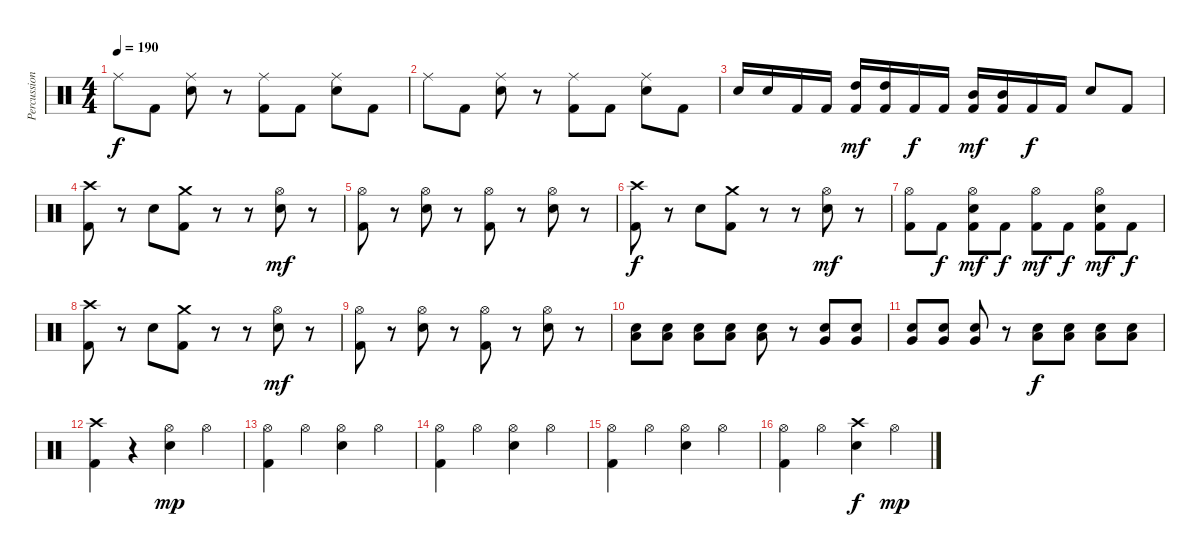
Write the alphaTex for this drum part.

\track ("Percussion" "Percussion") {instrument percussion}
\staff {score}
\articulation defaults
\ts (4 4)
\tempo 190
\clef neutral
\ks c "Ride (middle)".8{dy f} "Kick (hit) 2".8
("Ride (middle)" "Snare (hit) 2").8 r.8 ("Ride (middle)" "Kick (hit) 2").8 "Kick (hit) 2".8 ("Ride (middle)" "Snare (hit) 2").8 "Kick (hit) 2".8 |
"Ride (middle)".8 "Kick (hit) 2".8 ("Ride (middle)" "Snare (hit) 2").8 r.8 ("Ride (middle)" "Kick (hit) 2").8 "Kick (hit) 2".8 ("Ride (middle)" "Snare (hit) 2").8 "Kick (hit) 2".8 |
"Snare (hit) 2".16 "Snare (hit) 2".16 "Kick (hit) 2".16 "Kick (hit) 2".16 ("High Tom (hit)" "Kick (hit) 2").16{dy mf} ("High Tom (hit)" "Kick (hit) 2").16 "Kick (hit) 2".16{dy f} "Kick (hit) 2".16 ("Mid Tom (hit)" "Kick (hit) 2").16{dy mf} ("Mid Tom (hit)" "Kick (hit) 2").16 "Kick (hit) 2".16{dy f} "Kick (hit) 2".16 "Snare (hit) 2".8 "Kick (hit) 2".8 |
("Crash high (hit)" "Kick (hit) 2").8 r.8 "Snare (hit) 2".8 ("Crash medium (hit)" "Kick (hit) 2").8 r.8 r.8 ("Hi-Hat (open)" "Snare (hit) 2").8{dy mf} r.8 |
("Hi-Hat (open)" "Kick (hit) 2").8 r.8 ("Hi-Hat (open)" "Snare (hit) 2").8 r.8 ("Hi-Hat (open)" "Kick (hit) 2").8 r.8 ("Hi-Hat (open)" "Snare (hit) 2").8 r.8 |
("Crash high (hit)" "Kick (hit) 2").8{dy f} r.8 "Snare (hit) 2".8 ("Crash medium (hit)" "Kick (hit) 2").8 r.8 r.8 ("Hi-Hat (open)" "Snare (hit) 2").8{dy mf} r.8 |
("Hi-Hat (open)" "Kick (hit) 2").8 "Kick (hit) 2".8{dy f} ("Hi-Hat (open)" "Snare (hit) 2" "Kick (hit) 2").8{dy mf} "Kick (hit) 2".8{dy f} ("Hi-Hat (open)" "Kick (hit) 2").8{dy mf} "Kick (hit) 2".8{dy f} ("Hi-Hat (open)" "Snare (hit) 2" "Kick (hit) 2").8{dy mf} "Kick (hit) 2".8{dy f} |
("Crash high (hit)" "Kick (hit) 2").8 r.8 "Snare (hit) 2".8 ("Crash medium (hit)" "Kick (hit) 2").8 r.8 r.8 ("Hi-Hat (open)" "Snare (hit) 2").8{dy mf} r.8 |
("Hi-Hat (open)" "Kick (hit) 2").8 r.8 ("Hi-Hat (open)" "Snare (hit) 2").8 r.8 ("Hi-Hat (open)" "Kick (hit) 2").8 r.8 ("Hi-Hat (open)" "Snare (hit) 2").8 r.8 |
("Snare (hit) 2" "Low Tom (hit)").8 ("Snare (hit) 2" "Low Tom (hit)").8 ("Snare (hit) 2" "Low Tom (hit)").8 ("Snare (hit) 2" "Low Tom (hit)").8 ("Snare (hit) 2" "Low Tom (hit)").8 r.8 ("Snare (hit) 2" "Very Low Tom (hit)").8 ("Snare (hit) 2" "Very Low Tom (hit)").8 |
("Snare (hit) 2" "Very Low Tom (hit)").8 ("Snare (hit) 2" "Very Low Tom (hit)").8 ("Snare (hit) 2" "Very Low Tom (hit)").8 r.8 ("Snare (hit) 2" "Low Tom (hit)").8{dy f} ("Snare (hit) 2" "Low Tom (hit)").8 ("Snare (hit) 2" "Low Tom (hit)").8 ("Snare (hit) 2" "Low Tom (hit)").8 |
("Crash high (hit)" "Kick (hit) 2").4 r.4 ("Hi-Hat (open)" "Snare (hit) 2").4{dy mp} "Hi-Hat (open)".4 |
("Hi-Hat (open)" "Kick (hit) 2").4 "Hi-Hat (open)".4 ("Hi-Hat (open)" "Snare (hit) 2").4 "Hi-Hat (open)".4 |
("Hi-Hat (open)" "Kick (hit) 2").4 "Hi-Hat (open)".4 ("Hi-Hat (open)" "Snare (hit) 2").4 "Hi-Hat (open)".4 |
("Hi-Hat (open)" "Kick (hit) 2").4 "Hi-Hat (open)".4 ("Hi-Hat (open)" "Snare (hit) 2").4 "Hi-Hat (open)".4 |
("Hi-Hat (open)" "Kick (hit) 2").4 "Hi-Hat (open)".4 ("Crash high (hit)" "Snare (hit) 2").4{dy f} "Hi-Hat (open)".4{dy mp}
